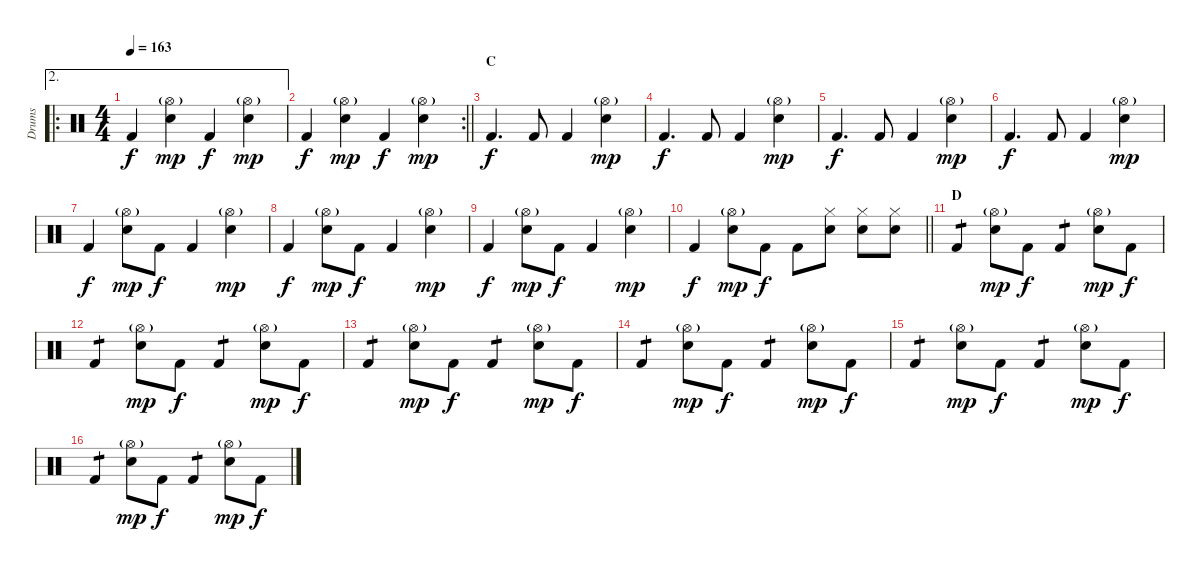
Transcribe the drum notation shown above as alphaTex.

\track ("Drums" "Drums") {instrument percussion}
\staff {score}
\articulation defaults
\ae 2
\ro
\ts (4 4)
\tempo 163
\clef neutral
\ks c "Kick (hit) 2".4{dy f}
("Hi-Hat (open)"{g} "Snare (hit) 2").4{dy mp} "Kick (hit) 2".4{dy f} ("Hi-Hat (open)"{g} "Snare (hit) 2").4{dy mp} |
\rc 2
\barLineRight lightlight "Kick (hit) 2".4{dy f}
("Hi-Hat (open)"{g} "Snare (hit) 2").4{dy mp} "Kick (hit) 2".4{dy f} ("Hi-Hat (open)"{g} "Snare (hit) 2").4{dy mp} |
\section ("" "C")
"Kick (hit) 2".4{d dy f} "Kick (hit) 2".8 "Kick (hit) 2".4 ("Hi-Hat (open)"{g} "Snare (hit) 2").4{dy mp} |
"Kick (hit) 2".4{d dy f} "Kick (hit) 2".8 "Kick (hit) 2".4 ("Hi-Hat (open)"{g} "Snare (hit) 2").4{dy mp} |
"Kick (hit) 2".4{d dy f} "Kick (hit) 2".8 "Kick (hit) 2".4 ("Hi-Hat (open)"{g} "Snare (hit) 2").4{dy mp} |
"Kick (hit) 2".4{d dy f} "Kick (hit) 2".8 "Kick (hit) 2".4 ("Hi-Hat (open)"{g} "Snare (hit) 2").4{dy mp} |
"Kick (hit) 2".4{dy f} ("Hi-Hat (open)"{g} "Snare (hit) 2").8{dy mp} "Kick (hit) 2".8{dy f} "Kick (hit) 2".4 ("Hi-Hat (open)"{g} "Snare (hit) 2").4{dy mp} |
"Kick (hit) 2".4{dy f} ("Hi-Hat (open)"{g} "Snare (hit) 2").8{dy mp} "Kick (hit) 2".8{dy f} "Kick (hit) 2".4 ("Hi-Hat (open)"{g} "Snare (hit) 2").4{dy mp} |
"Kick (hit) 2".4{dy f} ("Hi-Hat (open)"{g} "Snare (hit) 2").8{dy mp} "Kick (hit) 2".8{dy f} "Kick (hit) 2".4 ("Hi-Hat (open)"{g} "Snare (hit) 2").4{dy mp} |
\barLineRight lightlight "Kick (hit) 2".4{dy f}
("Hi-Hat (open)"{g} "Snare (hit) 2").8{dy mp} "Kick (hit) 2".8{dy f} "Kick (hit) 2".8 ("Hi-Hat (closed)" "Snare (hit) 2").8 ("Hi-Hat (closed)" "Snare (hit) 2").8 ("Hi-Hat (closed)" "Snare (hit) 2").8 |
\section ("" "D")
"Kick (hit) 2".4{tp 1} ("Hi-Hat (open)"{g} "Snare (hit) 2").8{dy mp} "Kick (hit) 2".8{dy f} "Kick (hit) 2".4{tp 1} ("Hi-Hat (open)"{g} "Snare (hit) 2").8{dy mp} "Kick (hit) 2".8{dy f} |
"Kick (hit) 2".4{tp 1} ("Hi-Hat (open)"{g} "Snare (hit) 2").8{dy mp} "Kick (hit) 2".8{dy f} "Kick (hit) 2".4{tp 1} ("Hi-Hat (open)"{g} "Snare (hit) 2").8{dy mp} "Kick (hit) 2".8{dy f} |
"Kick (hit) 2".4{tp 1} ("Hi-Hat (open)"{g} "Snare (hit) 2").8{dy mp} "Kick (hit) 2".8{dy f} "Kick (hit) 2".4{tp 1} ("Hi-Hat (open)"{g} "Snare (hit) 2").8{dy mp} "Kick (hit) 2".8{dy f} |
"Kick (hit) 2".4{tp 1} ("Hi-Hat (open)"{g} "Snare (hit) 2").8{dy mp} "Kick (hit) 2".8{dy f} "Kick (hit) 2".4{tp 1} ("Hi-Hat (open)"{g} "Snare (hit) 2").8{dy mp} "Kick (hit) 2".8{dy f} |
"Kick (hit) 2".4{tp 1} ("Hi-Hat (open)"{g} "Snare (hit) 2").8{dy mp} "Kick (hit) 2".8{dy f} "Kick (hit) 2".4{tp 1} ("Hi-Hat (open)"{g} "Snare (hit) 2").8{dy mp} "Kick (hit) 2".8{dy f} |
"Kick (hit) 2".4{tp 1} ("Hi-Hat (open)"{g} "Snare (hit) 2").8{dy mp} "Kick (hit) 2".8{dy f} "Kick (hit) 2".4{tp 1} ("Hi-Hat (open)"{g} "Snare (hit) 2").8{dy mp} "Kick (hit) 2".8{dy f}
